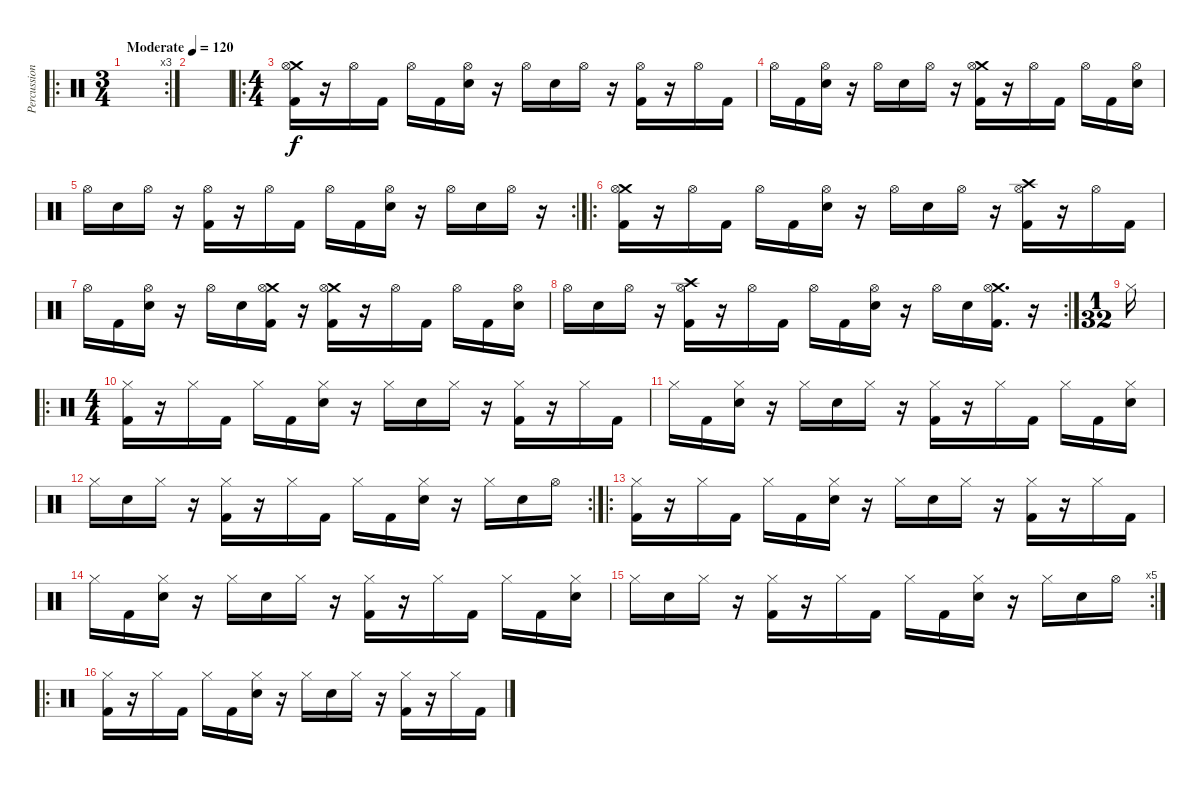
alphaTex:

\track ("Percussion" "Percussion") {instrument percussion}
\staff {score}
\articulation defaults
\ro
\rc 3
\ts (3 4)
\tempo (120 "Moderate")
\clef neutral
\ks c
|
|
\ro
\ts (4 4)
("Crash medium (hit)" "Hi-Hat (open)" "Kick (hit) 2").16 r.16 "Hi-Hat (open)".16 "Kick (hit) 2".16 "Hi-Hat (open)".16 "Kick (hit) 2".16 ("Hi-Hat (open)" "Electric Snare (hit)").16 r.16 "Hi-Hat (open)".16 "Electric Snare (hit)".16 "Hi-Hat (open)".16 r.16 ("Hi-Hat (open)" "Kick (hit) 2").16 r.16 "Hi-Hat (open)".16 "Kick (hit) 2".16 |
"Hi-Hat (open)".16 "Kick (hit) 2".16 ("Hi-Hat (open)" "Electric Snare (hit)").16 r.16 "Hi-Hat (open)".16 "Electric Snare (hit)".16 "Hi-Hat (open)".16 r.16 ("Crash medium (hit)" "Hi-Hat (open)" "Kick (hit) 2").16 r.16 "Hi-Hat (open)".16 "Kick (hit) 2".16 "Hi-Hat (open)".16 "Kick (hit) 2".16 ("Hi-Hat (open)" "Electric Snare (hit)").16 |
\rc 2 "Hi-Hat (open)".16 "Electric Snare (hit)".16 "Hi-Hat (open)".16
r.16 ("Hi-Hat (open)" "Kick (hit) 2").16 r.16 "Hi-Hat (open)".16 "Kick (hit) 2".16 "Hi-Hat (open)".16 "Kick (hit) 2".16 ("Hi-Hat (open)" "Electric Snare (hit)").16 r.16 "Hi-Hat (open)".16 "Electric Snare (hit)".16 "Hi-Hat (open)".16 r.16 |
\ro
("Crash medium (hit)" "Hi-Hat (open)" "Kick (hit) 2").16 r.16 "Hi-Hat (open)".16 "Kick (hit) 2".16 "Hi-Hat (open)".16 "Kick (hit) 2".16 ("Hi-Hat (open)" "Electric Snare (hit)").16 r.16 "Hi-Hat (open)".16 "Electric Snare (hit)".16 "Hi-Hat (open)".16 r.16 ("Crash high (hit)" "Hi-Hat (open)" "Kick (hit) 2").16 r.16 "Hi-Hat (open)".16 "Kick (hit) 2".16 |
"Hi-Hat (open)".16 "Kick (hit) 2".16 ("Hi-Hat (open)" "Electric Snare (hit)").16 r.16 "Hi-Hat (open)".16 "Electric Snare (hit)".16 ("Crash medium (hit)" "Hi-Hat (open)" "Kick (hit) 2").16 r.16 ("Crash medium (hit)" "Hi-Hat (open)" "Kick (hit) 2").16 r.16 "Hi-Hat (open)".16 "Kick (hit) 2".16 "Hi-Hat (open)".16 "Kick (hit) 2".16 ("Hi-Hat (open)" "Electric Snare (hit)").16 |
\rc 2 "Hi-Hat (open)".16 "Electric Snare (hit)".16 "Hi-Hat (open)".16
r.16 ("Crash high (hit)" "Hi-Hat (open)" "Kick (hit) 2").16 r.16 "Hi-Hat (open)".16 "Kick (hit) 2".16 "Hi-Hat (open)".16 "Kick (hit) 2".16 ("Hi-Hat (open)" "Electric Snare (hit)").16 r.16 "Hi-Hat (open)".16 "Electric Snare (hit)".16 ("Crash medium (hit)" "Hi-Hat (open)" "Kick (hit) 2").16{d} r.16 |
\ts (1 32)
"Hi-Hat (closed)".16 |
\ro
\ts (4 4)
("Hi-Hat (closed)" "Kick (hit) 2").16 r.16 "Hi-Hat (closed)".16 "Kick (hit) 2".16 "Hi-Hat (closed)".16 "Kick (hit) 2".16 ("Hi-Hat (closed)" "Electric Snare (hit)").16 r.16 "Hi-Hat (closed)".16 "Electric Snare (hit)".16 "Hi-Hat (closed)".16 r.16 ("Hi-Hat (closed)" "Kick (hit) 2").16 r.16 "Hi-Hat (closed)".16 "Kick (hit) 2".16 |
"Hi-Hat (closed)".16 "Kick (hit) 2".16 ("Hi-Hat (closed)" "Electric Snare (hit)").16 r.16 "Hi-Hat (closed)".16 "Electric Snare (hit)".16 "Hi-Hat (closed)".16 r.16 ("Hi-Hat (closed)" "Kick (hit) 2").16 r.16 "Hi-Hat (closed)".16 "Kick (hit) 2".16 "Hi-Hat (closed)".16 "Kick (hit) 2".16 ("Hi-Hat (closed)" "Electric Snare (hit)").16 |
\rc 2 "Hi-Hat (closed)".16 "Electric Snare (hit)".16 "Hi-Hat (closed)".16
r.16 ("Hi-Hat (closed)" "Kick (hit) 2").16 r.16 "Hi-Hat (closed)".16 "Kick (hit) 2".16 "Hi-Hat (closed)".16 "Kick (hit) 2".16 ("Hi-Hat (closed)" "Electric Snare (hit)").16 r.16 "Hi-Hat (closed)".16 "Electric Snare (hit)".16 "Hi-Hat (open)".16 |
\ro
("Hi-Hat (closed)" "Kick (hit) 2").16 r.16 "Hi-Hat (closed)".16 "Kick (hit) 2".16 "Hi-Hat (closed)".16 "Kick (hit) 2".16 ("Hi-Hat (closed)" "Electric Snare (hit)").16 r.16 "Hi-Hat (closed)".16 "Electric Snare (hit)".16 "Hi-Hat (closed)".16 r.16 ("Hi-Hat (closed)" "Kick (hit) 2").16 r.16 "Hi-Hat (closed)".16 "Kick (hit) 2".16 |
"Hi-Hat (closed)".16 "Kick (hit) 2".16 ("Hi-Hat (closed)" "Electric Snare (hit)").16 r.16 "Hi-Hat (closed)".16 "Electric Snare (hit)".16 "Hi-Hat (closed)".16 r.16 ("Hi-Hat (closed)" "Kick (hit) 2").16 r.16 "Hi-Hat (closed)".16 "Kick (hit) 2".16 "Hi-Hat (closed)".16 "Kick (hit) 2".16 ("Hi-Hat (closed)" "Electric Snare (hit)").16 |
\rc 5 "Hi-Hat (closed)".16 "Electric Snare (hit)".16 "Hi-Hat (closed)".16
r.16 ("Hi-Hat (closed)" "Kick (hit) 2").16 r.16 "Hi-Hat (closed)".16 "Kick (hit) 2".16 "Hi-Hat (closed)".16 "Kick (hit) 2".16 ("Hi-Hat (closed)" "Electric Snare (hit)").16 r.16 "Hi-Hat (closed)".16 "Electric Snare (hit)".16 "Hi-Hat (open)".16 |
\ro
("Hi-Hat (closed)" "Kick (hit) 2").16 r.16 "Hi-Hat (closed)".16 "Kick (hit) 2".16 "Hi-Hat (closed)".16 "Kick (hit) 2".16 ("Hi-Hat (closed)" "Electric Snare (hit)").16 r.16 "Hi-Hat (closed)".16 "Electric Snare (hit)".16 "Hi-Hat (closed)".16 r.16 ("Hi-Hat (closed)" "Kick (hit) 2").16 r.16 "Hi-Hat (closed)".16 "Kick (hit) 2".16
